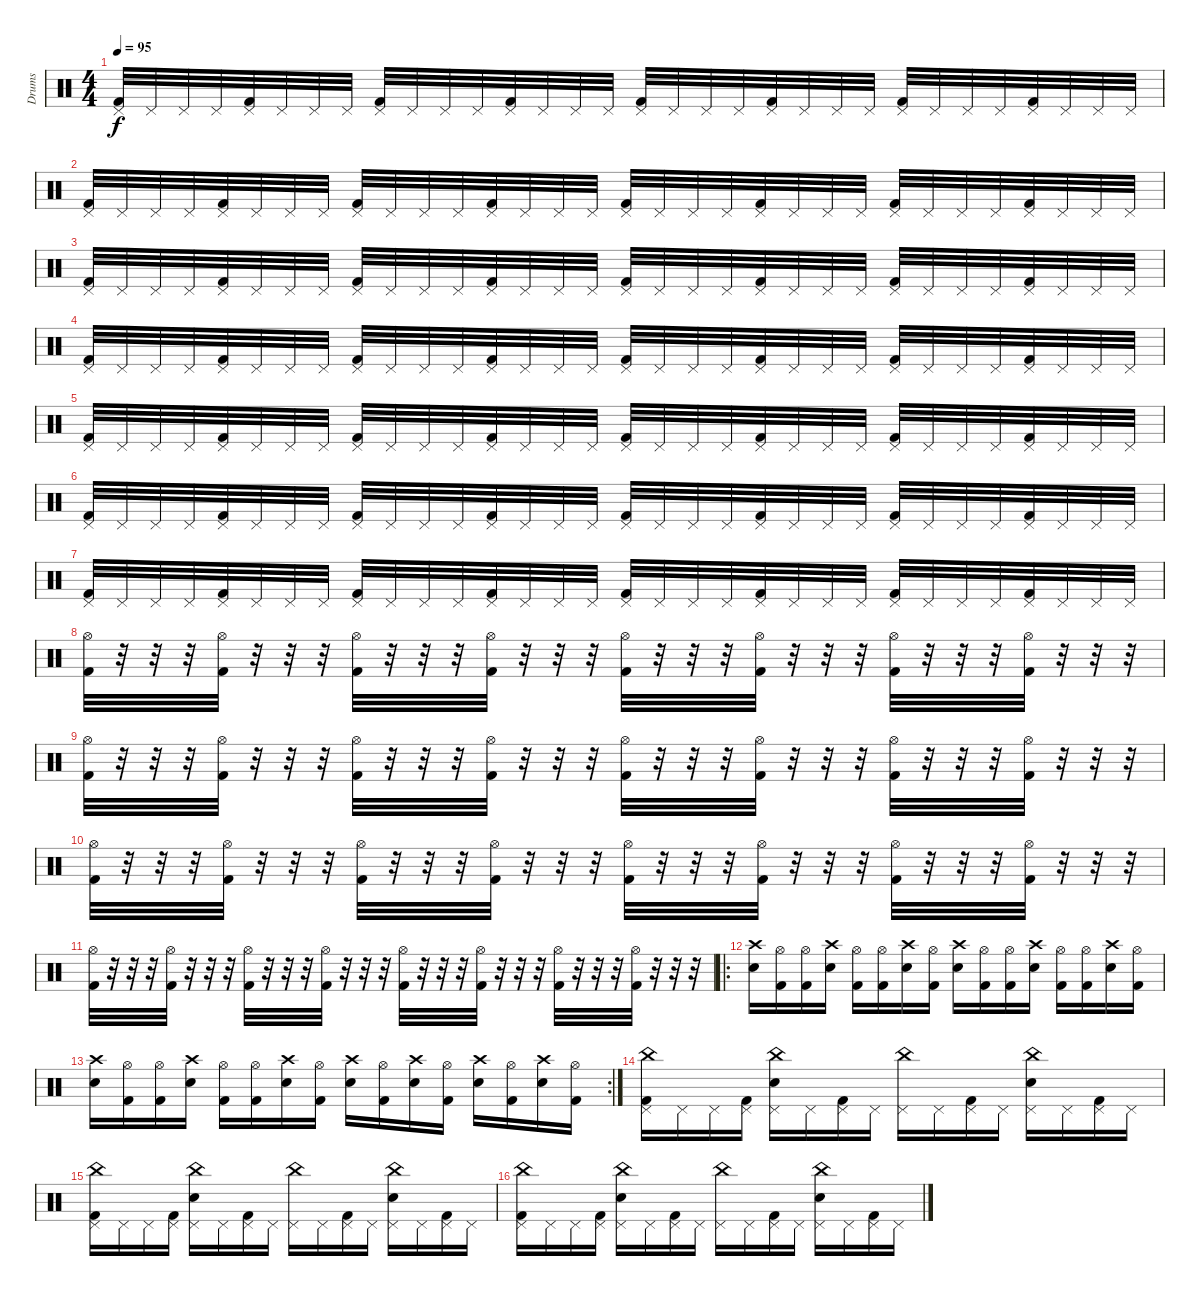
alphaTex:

\track ("Drums" "Drums") {instrument percussion}
\staff {score}
\articulation defaults
\ts (4 4)
\tempo 95
\clef neutral
\ks c
("Pedal Hi-Hat (hit)" "Kick (hit) 2").32{dy f} "Pedal Hi-Hat (hit)".32 "Pedal Hi-Hat (hit)".32 "Pedal Hi-Hat (hit)".32 ("Pedal Hi-Hat (hit)" "Kick (hit) 2").32 "Pedal Hi-Hat (hit)".32 "Pedal Hi-Hat (hit)".32 "Pedal Hi-Hat (hit)".32 ("Pedal Hi-Hat (hit)" "Kick (hit) 2").32 "Pedal Hi-Hat (hit)".32 "Pedal Hi-Hat (hit)".32 "Pedal Hi-Hat (hit)".32 ("Pedal Hi-Hat (hit)" "Kick (hit) 2").32 "Pedal Hi-Hat (hit)".32 "Pedal Hi-Hat (hit)".32 "Pedal Hi-Hat (hit)".32 ("Pedal Hi-Hat (hit)" "Kick (hit) 2").32 "Pedal Hi-Hat (hit)".32 "Pedal Hi-Hat (hit)".32 "Pedal Hi-Hat (hit)".32 ("Pedal Hi-Hat (hit)" "Kick (hit) 2").32 "Pedal Hi-Hat (hit)".32 "Pedal Hi-Hat (hit)".32 "Pedal Hi-Hat (hit)".32 ("Pedal Hi-Hat (hit)" "Kick (hit) 2").32 "Pedal Hi-Hat (hit)".32 "Pedal Hi-Hat (hit)".32 "Pedal Hi-Hat (hit)".32 ("Pedal Hi-Hat (hit)" "Kick (hit) 2").32 "Pedal Hi-Hat (hit)".32 "Pedal Hi-Hat (hit)".32 "Pedal Hi-Hat (hit)".32 |
("Pedal Hi-Hat (hit)" "Kick (hit) 2").32 "Pedal Hi-Hat (hit)".32 "Pedal Hi-Hat (hit)".32 "Pedal Hi-Hat (hit)".32 ("Pedal Hi-Hat (hit)" "Kick (hit) 2").32 "Pedal Hi-Hat (hit)".32 "Pedal Hi-Hat (hit)".32 "Pedal Hi-Hat (hit)".32 ("Pedal Hi-Hat (hit)" "Kick (hit) 2").32 "Pedal Hi-Hat (hit)".32 "Pedal Hi-Hat (hit)".32 "Pedal Hi-Hat (hit)".32 ("Pedal Hi-Hat (hit)" "Kick (hit) 2").32 "Pedal Hi-Hat (hit)".32 "Pedal Hi-Hat (hit)".32 "Pedal Hi-Hat (hit)".32 ("Pedal Hi-Hat (hit)" "Kick (hit) 2").32 "Pedal Hi-Hat (hit)".32 "Pedal Hi-Hat (hit)".32 "Pedal Hi-Hat (hit)".32 ("Pedal Hi-Hat (hit)" "Kick (hit) 2").32 "Pedal Hi-Hat (hit)".32 "Pedal Hi-Hat (hit)".32 "Pedal Hi-Hat (hit)".32 ("Pedal Hi-Hat (hit)" "Kick (hit) 2").32 "Pedal Hi-Hat (hit)".32 "Pedal Hi-Hat (hit)".32 "Pedal Hi-Hat (hit)".32 ("Pedal Hi-Hat (hit)" "Kick (hit) 2").32 "Pedal Hi-Hat (hit)".32 "Pedal Hi-Hat (hit)".32 "Pedal Hi-Hat (hit)".32 |
("Pedal Hi-Hat (hit)" "Kick (hit) 2").32 "Pedal Hi-Hat (hit)".32 "Pedal Hi-Hat (hit)".32 "Pedal Hi-Hat (hit)".32 ("Pedal Hi-Hat (hit)" "Kick (hit) 2").32 "Pedal Hi-Hat (hit)".32 "Pedal Hi-Hat (hit)".32 "Pedal Hi-Hat (hit)".32 ("Pedal Hi-Hat (hit)" "Kick (hit) 2").32 "Pedal Hi-Hat (hit)".32 "Pedal Hi-Hat (hit)".32 "Pedal Hi-Hat (hit)".32 ("Pedal Hi-Hat (hit)" "Kick (hit) 2").32 "Pedal Hi-Hat (hit)".32 "Pedal Hi-Hat (hit)".32 "Pedal Hi-Hat (hit)".32 ("Pedal Hi-Hat (hit)" "Kick (hit) 2").32 "Pedal Hi-Hat (hit)".32 "Pedal Hi-Hat (hit)".32 "Pedal Hi-Hat (hit)".32 ("Pedal Hi-Hat (hit)" "Kick (hit) 2").32 "Pedal Hi-Hat (hit)".32 "Pedal Hi-Hat (hit)".32 "Pedal Hi-Hat (hit)".32 ("Pedal Hi-Hat (hit)" "Kick (hit) 2").32 "Pedal Hi-Hat (hit)".32 "Pedal Hi-Hat (hit)".32 "Pedal Hi-Hat (hit)".32 ("Pedal Hi-Hat (hit)" "Kick (hit) 2").32 "Pedal Hi-Hat (hit)".32 "Pedal Hi-Hat (hit)".32 "Pedal Hi-Hat (hit)".32 |
("Pedal Hi-Hat (hit)" "Kick (hit) 2").32 "Pedal Hi-Hat (hit)".32 "Pedal Hi-Hat (hit)".32 "Pedal Hi-Hat (hit)".32 ("Pedal Hi-Hat (hit)" "Kick (hit) 2").32 "Pedal Hi-Hat (hit)".32 "Pedal Hi-Hat (hit)".32 "Pedal Hi-Hat (hit)".32 ("Pedal Hi-Hat (hit)" "Kick (hit) 2").32 "Pedal Hi-Hat (hit)".32 "Pedal Hi-Hat (hit)".32 "Pedal Hi-Hat (hit)".32 ("Pedal Hi-Hat (hit)" "Kick (hit) 2").32 "Pedal Hi-Hat (hit)".32 "Pedal Hi-Hat (hit)".32 "Pedal Hi-Hat (hit)".32 ("Pedal Hi-Hat (hit)" "Kick (hit) 2").32 "Pedal Hi-Hat (hit)".32 "Pedal Hi-Hat (hit)".32 "Pedal Hi-Hat (hit)".32 ("Pedal Hi-Hat (hit)" "Kick (hit) 2").32 "Pedal Hi-Hat (hit)".32 "Pedal Hi-Hat (hit)".32 "Pedal Hi-Hat (hit)".32 ("Pedal Hi-Hat (hit)" "Kick (hit) 2").32 "Pedal Hi-Hat (hit)".32 "Pedal Hi-Hat (hit)".32 "Pedal Hi-Hat (hit)".32 ("Pedal Hi-Hat (hit)" "Kick (hit) 2").32 "Pedal Hi-Hat (hit)".32 "Pedal Hi-Hat (hit)".32 "Pedal Hi-Hat (hit)".32 |
("Pedal Hi-Hat (hit)" "Kick (hit) 2").32 "Pedal Hi-Hat (hit)".32 "Pedal Hi-Hat (hit)".32 "Pedal Hi-Hat (hit)".32 ("Pedal Hi-Hat (hit)" "Kick (hit) 2").32 "Pedal Hi-Hat (hit)".32 "Pedal Hi-Hat (hit)".32 "Pedal Hi-Hat (hit)".32 ("Pedal Hi-Hat (hit)" "Kick (hit) 2").32 "Pedal Hi-Hat (hit)".32 "Pedal Hi-Hat (hit)".32 "Pedal Hi-Hat (hit)".32 ("Pedal Hi-Hat (hit)" "Kick (hit) 2").32 "Pedal Hi-Hat (hit)".32 "Pedal Hi-Hat (hit)".32 "Pedal Hi-Hat (hit)".32 ("Pedal Hi-Hat (hit)" "Kick (hit) 2").32 "Pedal Hi-Hat (hit)".32 "Pedal Hi-Hat (hit)".32 "Pedal Hi-Hat (hit)".32 ("Pedal Hi-Hat (hit)" "Kick (hit) 2").32 "Pedal Hi-Hat (hit)".32 "Pedal Hi-Hat (hit)".32 "Pedal Hi-Hat (hit)".32 ("Pedal Hi-Hat (hit)" "Kick (hit) 2").32 "Pedal Hi-Hat (hit)".32 "Pedal Hi-Hat (hit)".32 "Pedal Hi-Hat (hit)".32 ("Pedal Hi-Hat (hit)" "Kick (hit) 2").32 "Pedal Hi-Hat (hit)".32 "Pedal Hi-Hat (hit)".32 "Pedal Hi-Hat (hit)".32 |
("Pedal Hi-Hat (hit)" "Kick (hit) 2").32 "Pedal Hi-Hat (hit)".32 "Pedal Hi-Hat (hit)".32 "Pedal Hi-Hat (hit)".32 ("Pedal Hi-Hat (hit)" "Kick (hit) 2").32 "Pedal Hi-Hat (hit)".32 "Pedal Hi-Hat (hit)".32 "Pedal Hi-Hat (hit)".32 ("Pedal Hi-Hat (hit)" "Kick (hit) 2").32 "Pedal Hi-Hat (hit)".32 "Pedal Hi-Hat (hit)".32 "Pedal Hi-Hat (hit)".32 ("Pedal Hi-Hat (hit)" "Kick (hit) 2").32 "Pedal Hi-Hat (hit)".32 "Pedal Hi-Hat (hit)".32 "Pedal Hi-Hat (hit)".32 ("Pedal Hi-Hat (hit)" "Kick (hit) 2").32 "Pedal Hi-Hat (hit)".32 "Pedal Hi-Hat (hit)".32 "Pedal Hi-Hat (hit)".32 ("Pedal Hi-Hat (hit)" "Kick (hit) 2").32 "Pedal Hi-Hat (hit)".32 "Pedal Hi-Hat (hit)".32 "Pedal Hi-Hat (hit)".32 ("Pedal Hi-Hat (hit)" "Kick (hit) 2").32 "Pedal Hi-Hat (hit)".32 "Pedal Hi-Hat (hit)".32 "Pedal Hi-Hat (hit)".32 ("Pedal Hi-Hat (hit)" "Kick (hit) 2").32 "Pedal Hi-Hat (hit)".32 "Pedal Hi-Hat (hit)".32 "Pedal Hi-Hat (hit)".32 |
("Pedal Hi-Hat (hit)" "Kick (hit) 2").32 "Pedal Hi-Hat (hit)".32 "Pedal Hi-Hat (hit)".32 "Pedal Hi-Hat (hit)".32 ("Pedal Hi-Hat (hit)" "Kick (hit) 2").32 "Pedal Hi-Hat (hit)".32 "Pedal Hi-Hat (hit)".32 "Pedal Hi-Hat (hit)".32 ("Pedal Hi-Hat (hit)" "Kick (hit) 2").32 "Pedal Hi-Hat (hit)".32 "Pedal Hi-Hat (hit)".32 "Pedal Hi-Hat (hit)".32 ("Pedal Hi-Hat (hit)" "Kick (hit) 2").32 "Pedal Hi-Hat (hit)".32 "Pedal Hi-Hat (hit)".32 "Pedal Hi-Hat (hit)".32 ("Pedal Hi-Hat (hit)" "Kick (hit) 2").32 "Pedal Hi-Hat (hit)".32 "Pedal Hi-Hat (hit)".32 "Pedal Hi-Hat (hit)".32 ("Pedal Hi-Hat (hit)" "Kick (hit) 2").32 "Pedal Hi-Hat (hit)".32 "Pedal Hi-Hat (hit)".32 "Pedal Hi-Hat (hit)".32 ("Pedal Hi-Hat (hit)" "Kick (hit) 2").32 "Pedal Hi-Hat (hit)".32 "Pedal Hi-Hat (hit)".32 "Pedal Hi-Hat (hit)".32 ("Pedal Hi-Hat (hit)" "Kick (hit) 2").32 "Pedal Hi-Hat (hit)".32 "Pedal Hi-Hat (hit)".32 "Pedal Hi-Hat (hit)".32 |
("Hi-Hat (open)" "Kick (hit) 2").32 r.32 r.32 r.32 ("Hi-Hat (open)" "Kick (hit) 2").32 r.32 r.32 r.32 ("Hi-Hat (open)" "Kick (hit) 2").32 r.32 r.32 r.32 ("Hi-Hat (open)" "Kick (hit) 2").32 r.32 r.32 r.32 ("Hi-Hat (open)" "Kick (hit) 2").32 r.32 r.32 r.32 ("Hi-Hat (open)" "Kick (hit) 2").32 r.32 r.32 r.32 ("Hi-Hat (open)" "Kick (hit) 2").32 r.32 r.32 r.32 ("Hi-Hat (open)" "Kick (hit) 2").32 r.32 r.32 r.32 |
("Hi-Hat (open)" "Kick (hit) 2").32 r.32 r.32 r.32 ("Hi-Hat (open)" "Kick (hit) 2").32 r.32 r.32 r.32 ("Hi-Hat (open)" "Kick (hit) 2").32 r.32 r.32 r.32 ("Hi-Hat (open)" "Kick (hit) 2").32 r.32 r.32 r.32 ("Hi-Hat (open)" "Kick (hit) 2").32 r.32 r.32 r.32 ("Hi-Hat (open)" "Kick (hit) 2").32 r.32 r.32 r.32 ("Hi-Hat (open)" "Kick (hit) 2").32 r.32 r.32 r.32 ("Hi-Hat (open)" "Kick (hit) 2").32 r.32 r.32 r.32 |
("Hi-Hat (open)" "Kick (hit) 2").32 r.32 r.32 r.32 ("Hi-Hat (open)" "Kick (hit) 2").32 r.32 r.32 r.32 ("Hi-Hat (open)" "Kick (hit) 2").32 r.32 r.32 r.32 ("Hi-Hat (open)" "Kick (hit) 2").32 r.32 r.32 r.32 ("Hi-Hat (open)" "Kick (hit) 2").32 r.32 r.32 r.32 ("Hi-Hat (open)" "Kick (hit) 2").32 r.32 r.32 r.32 ("Hi-Hat (open)" "Kick (hit) 2").32 r.32 r.32 r.32 ("Hi-Hat (open)" "Kick (hit) 2").32 r.32 r.32 r.32 |
("Hi-Hat (open)" "Kick (hit) 2").32 r.32 r.32 r.32 ("Hi-Hat (open)" "Kick (hit) 2").32 r.32 r.32 r.32 ("Hi-Hat (open)" "Kick (hit) 2").32 r.32 r.32 r.32 ("Hi-Hat (open)" "Kick (hit) 2").32 r.32 r.32 r.32 ("Hi-Hat (open)" "Kick (hit) 2").32 r.32 r.32 r.32 ("Hi-Hat (open)" "Kick (hit) 2").32 r.32 r.32 r.32 ("Hi-Hat (open)" "Kick (hit) 2").32 r.32 r.32 r.32 ("Hi-Hat (open)" "Kick (hit) 2").32 r.32 r.32 r.32 |
\ro
("Crash high (hit)" "Electric Snare (hit)").16 ("Hi-Hat (open)" "Kick (hit) 2").16 ("Hi-Hat (open)" "Kick (hit) 2").16 ("Crash high (hit)" "Electric Snare (hit)").16 ("Hi-Hat (open)" "Kick (hit) 2").16 ("Hi-Hat (open)" "Kick (hit) 2").16 ("Crash high (hit)" "Electric Snare (hit)").16 ("Hi-Hat (open)" "Kick (hit) 2").16 ("Crash high (hit)" "Electric Snare (hit)").16 ("Hi-Hat (open)" "Kick (hit) 2").16 ("Hi-Hat (open)" "Kick (hit) 2").16 ("Crash high (hit)" "Electric Snare (hit)").16 ("Hi-Hat (open)" "Kick (hit) 2").16 ("Hi-Hat (open)" "Kick (hit) 2").16 ("Crash high (hit)" "Electric Snare (hit)").16 ("Hi-Hat (open)" "Kick (hit) 2").16 |
\rc 2
("Crash high (hit)" "Electric Snare (hit)").16 ("Hi-Hat (open)" "Kick (hit) 2").16 ("Hi-Hat (open)" "Kick (hit) 2").16 ("Crash high (hit)" "Electric Snare (hit)").16 ("Hi-Hat (open)" "Kick (hit) 2").16 ("Hi-Hat (open)" "Kick (hit) 2").16 ("Crash high (hit)" "Electric Snare (hit)").16 ("Hi-Hat (open)" "Kick (hit) 2").16 ("Crash high (hit)" "Electric Snare (hit)").16 ("Hi-Hat (open)" "Kick (hit) 2").16 ("Crash high (hit)" "Electric Snare (hit)").16 ("Hi-Hat (open)" "Kick (hit) 2").16 ("Crash high (hit)" "Electric Snare (hit)").16 ("Hi-Hat (open)" "Kick (hit) 2").16 ("Crash high (hit)" "Electric Snare (hit)").16 ("Hi-Hat (open)" "Kick (hit) 2").16 |
("Pedal Hi-Hat (hit)" "China (hit)" "Kick (hit) 2").16 "Pedal Hi-Hat (hit)".16 "Pedal Hi-Hat (hit)".16 ("Pedal Hi-Hat (hit)" "Kick (hit) 2").16 ("Pedal Hi-Hat (hit)" "China (hit)" "Electric Snare (hit)").16 "Pedal Hi-Hat (hit)".16 ("Pedal Hi-Hat (hit)" "Kick (hit) 2").16 "Pedal Hi-Hat (hit)".16 ("Pedal Hi-Hat (hit)" "China (hit)").16 "Pedal Hi-Hat (hit)".16 ("Pedal Hi-Hat (hit)" "Kick (hit) 2").16 "Pedal Hi-Hat (hit)".16 ("Pedal Hi-Hat (hit)" "China (hit)" "Electric Snare (hit)").16 "Pedal Hi-Hat (hit)".16 ("Pedal Hi-Hat (hit)" "Kick (hit) 2").16 "Pedal Hi-Hat (hit)".16 |
("Pedal Hi-Hat (hit)" "China (hit)" "Kick (hit) 2").16 "Pedal Hi-Hat (hit)".16 "Pedal Hi-Hat (hit)".16 ("Pedal Hi-Hat (hit)" "Kick (hit) 2").16 ("Pedal Hi-Hat (hit)" "China (hit)" "Electric Snare (hit)").16 "Pedal Hi-Hat (hit)".16 ("Pedal Hi-Hat (hit)" "Kick (hit) 2").16 "Pedal Hi-Hat (hit)".16 ("Pedal Hi-Hat (hit)" "China (hit)").16 "Pedal Hi-Hat (hit)".16 ("Pedal Hi-Hat (hit)" "Kick (hit) 2").16 "Pedal Hi-Hat (hit)".16 ("Pedal Hi-Hat (hit)" "China (hit)" "Electric Snare (hit)").16 "Pedal Hi-Hat (hit)".16 ("Pedal Hi-Hat (hit)" "Kick (hit) 2").16 "Pedal Hi-Hat (hit)".16 |
("Pedal Hi-Hat (hit)" "China (hit)" "Kick (hit) 2").16 "Pedal Hi-Hat (hit)".16 "Pedal Hi-Hat (hit)".16 ("Pedal Hi-Hat (hit)" "Kick (hit) 2").16 ("Pedal Hi-Hat (hit)" "China (hit)" "Electric Snare (hit)").16 "Pedal Hi-Hat (hit)".16 ("Pedal Hi-Hat (hit)" "Kick (hit) 2").16 "Pedal Hi-Hat (hit)".16 ("Pedal Hi-Hat (hit)" "China (hit)").16 "Pedal Hi-Hat (hit)".16 ("Pedal Hi-Hat (hit)" "Kick (hit) 2").16 "Pedal Hi-Hat (hit)".16 ("Pedal Hi-Hat (hit)" "China (hit)" "Electric Snare (hit)").16 "Pedal Hi-Hat (hit)".16 ("Pedal Hi-Hat (hit)" "Kick (hit) 2").16 "Pedal Hi-Hat (hit)".16
